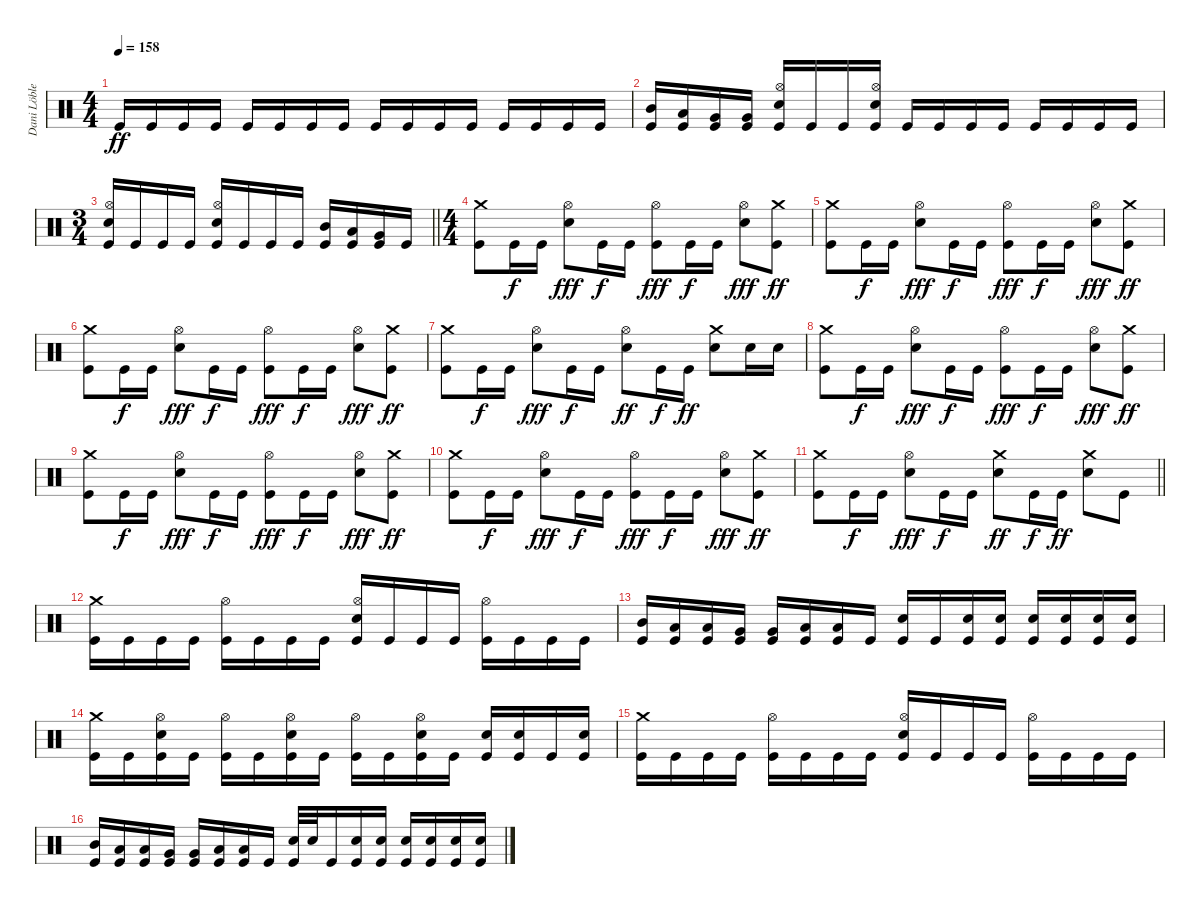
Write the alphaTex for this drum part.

\track ("Dani Löble" "Dani Löble") {instrument percussion}
\staff {score}
\articulation defaults
\ts (4 4)
\section ("" "")
\tempo 158
\clef neutral
\ks c "Kick (hit)".16{dy ff} "Kick (hit)".16 "Kick (hit)".16 "Kick (hit)".16 "Kick (hit)".16 "Kick (hit)".16 "Kick (hit)".16 "Kick (hit)".16 "Kick (hit)".16 "Kick (hit)".16 "Kick (hit)".16 "Kick (hit)".16 "Kick (hit)".16 "Kick (hit)".16 "Kick (hit)".16 "Kick (hit)".16
|
("Mid Tom (hit)" "Kick (hit)").16 ("Low Tom (hit)" "Kick (hit)").16 ("Very Low Tom (hit)" "Kick (hit)").16 ("Very Low Tom (hit)" "Kick (hit)").16 ("Hi-Hat (open)" "Electric Snare (hit)" "Kick (hit)").16 "Kick (hit)".16 "Kick (hit)".16 ("Hi-Hat (open)" "Electric Snare (hit)" "Kick (hit)").16 "Kick (hit)".16 "Kick (hit)".16 "Kick (hit)".16 "Kick (hit)".16 "Kick (hit)".16 "Kick (hit)".16 "Kick (hit)".16 "Kick (hit)".16 |
\ts (3 4)
\barLineRight lightlight
("Hi-Hat (open)" "Electric Snare (hit)" "Kick (hit)").16 "Kick (hit)".16 "Kick (hit)".16 "Kick (hit)".16 ("Hi-Hat (open)" "Electric Snare (hit)" "Kick (hit)").16 "Kick (hit)".16 "Kick (hit)".16 "Kick (hit)".16 ("Mid Tom (hit)" "Kick (hit)").16 ("Low Tom (hit)" "Kick (hit)").16 ("Very Low Tom (hit)" "Kick (hit)").16 "Kick (hit)".16 |
\ts (4 4)
\section ("" "")
("Crash medium (hit)" "Kick (hit)").8 "Kick (hit)".16{dy f} "Kick (hit)".16 ("Hi-Hat (open)" "Electric Snare (hit)").8{dy fff} "Kick (hit)".16{dy f} "Kick (hit)".16 ("Hi-Hat (open)" "Kick (hit)").8{dy fff} "Kick (hit)".16{dy f} "Kick (hit)".16 ("Hi-Hat (open)" "Electric Snare (hit)").8{dy fff} ("Crash medium (hit)" "Kick (hit)").8{dy ff} |
("Crash medium (hit)" "Kick (hit)").8 "Kick (hit)".16{dy f} "Kick (hit)".16 ("Hi-Hat (open)" "Electric Snare (hit)").8{dy fff} "Kick (hit)".16{dy f} "Kick (hit)".16 ("Hi-Hat (open)" "Kick (hit)").8{dy fff} "Kick (hit)".16{dy f} "Kick (hit)".16 ("Hi-Hat (open)" "Electric Snare (hit)").8{dy fff} ("Crash medium (hit)" "Kick (hit)").8{dy ff} |
("Crash medium (hit)" "Kick (hit)").8 "Kick (hit)".16{dy f} "Kick (hit)".16 ("Hi-Hat (open)" "Electric Snare (hit)").8{dy fff} "Kick (hit)".16{dy f} "Kick (hit)".16 ("Hi-Hat (open)" "Kick (hit)").8{dy fff} "Kick (hit)".16{dy f} "Kick (hit)".16 ("Hi-Hat (open)" "Electric Snare (hit)").8{dy fff} ("Crash medium (hit)" "Kick (hit)").8{dy ff} |
("Crash medium (hit)" "Kick (hit)").8 "Kick (hit)".16{dy f} "Kick (hit)".16 ("Hi-Hat (open)" "Electric Snare (hit)").8{dy fff} "Kick (hit)".16{dy f} "Kick (hit)".16 ("Hi-Hat (open)" "Electric Snare (hit)").8{dy ff} "Kick (hit)".16{dy f} "Kick (hit)".16{dy ff} ("Crash medium (hit)" "Electric Snare (hit)").8 "Electric Snare (hit)".16 "Electric Snare (hit)".16 |
("Crash medium (hit)" "Kick (hit)").8 "Kick (hit)".16{dy f} "Kick (hit)".16 ("Hi-Hat (open)" "Electric Snare (hit)").8{dy fff} "Kick (hit)".16{dy f} "Kick (hit)".16 ("Hi-Hat (open)" "Kick (hit)").8{dy fff} "Kick (hit)".16{dy f} "Kick (hit)".16 ("Hi-Hat (open)" "Electric Snare (hit)").8{dy fff} ("Crash medium (hit)" "Kick (hit)").8{dy ff} |
("Crash medium (hit)" "Kick (hit)").8 "Kick (hit)".16{dy f} "Kick (hit)".16 ("Hi-Hat (open)" "Electric Snare (hit)").8{dy fff} "Kick (hit)".16{dy f} "Kick (hit)".16 ("Hi-Hat (open)" "Kick (hit)").8{dy fff} "Kick (hit)".16{dy f} "Kick (hit)".16 ("Hi-Hat (open)" "Electric Snare (hit)").8{dy fff} ("Crash medium (hit)" "Kick (hit)").8{dy ff} |
("Crash medium (hit)" "Kick (hit)").8 "Kick (hit)".16{dy f} "Kick (hit)".16 ("Hi-Hat (open)" "Electric Snare (hit)").8{dy fff} "Kick (hit)".16{dy f} "Kick (hit)".16 ("Hi-Hat (open)" "Kick (hit)").8{dy fff} "Kick (hit)".16{dy f} "Kick (hit)".16 ("Hi-Hat (open)" "Electric Snare (hit)").8{dy fff} ("Crash medium (hit)" "Kick (hit)").8{dy ff} |
\barLineRight lightlight
("Crash medium (hit)" "Kick (hit)").8 "Kick (hit)".16{dy f} "Kick (hit)".16 ("Hi-Hat (open)" "Electric Snare (hit)").8{dy fff} "Kick (hit)".16{dy f} "Kick (hit)".16 ("Crash medium (hit)" "Electric Snare (hit)").8{dy ff} "Kick (hit)".16{dy f} "Kick (hit)".16{dy ff} ("Crash medium (hit)" "Electric Snare (hit)").8 "Kick (hit)".8 |
\section ("" "")
("Crash medium (hit)" "Kick (hit)").16 "Kick (hit)".16 "Kick (hit)".16 "Kick (hit)".16 ("Hi-Hat (open)" "Kick (hit)").16 "Kick (hit)".16 "Kick (hit)".16 "Kick (hit)".16 ("Hi-Hat (open)" "Electric Snare (hit)" "Kick (hit)").16 "Kick (hit)".16 "Kick (hit)".16 "Kick (hit)".16 ("Hi-Hat (open)" "Kick (hit)").16 "Kick (hit)".16 "Kick (hit)".16 "Kick (hit)".16 |
("Mid Tom (hit)" "Kick (hit)").16 ("Low Tom (hit)" "Kick (hit)").16 ("Low Tom (hit)" "Kick (hit)").16 ("Very Low Tom (hit)" "Kick (hit)").16 ("Very Low Tom (hit)" "Kick (hit)").16 ("Low Floor Tom (hit)" "Kick (hit)").16 ("Low Floor Tom (hit)" "Kick (hit)").16 "Kick (hit)".16 ("Electric Snare (hit)" "Kick (hit)").16 "Kick (hit)".16 ("Electric Snare (hit)" "Kick (hit)").16 ("Electric Snare (hit)" "Kick (hit)").16 ("Electric Snare (hit)" "Kick (hit)").16 ("Electric Snare (hit)" "Kick (hit)").16 ("Electric Snare (hit)" "Kick (hit)").16 ("Electric Snare (hit)" "Kick (hit)").16 |
("Crash medium (hit)" "Kick (hit)").16 "Kick (hit)".16 ("Hi-Hat (open)" "Electric Snare (hit)" "Kick (hit)").16 "Kick (hit)".16 ("Hi-Hat (open)" "Kick (hit)").16 "Kick (hit)".16 ("Hi-Hat (open)" "Electric Snare (hit)" "Kick (hit)").16 "Kick (hit)".16 ("Hi-Hat (open)" "Kick (hit)").16 "Kick (hit)".16 ("Hi-Hat (open)" "Electric Snare (hit)" "Kick (hit)").16 "Kick (hit)".16 ("Electric Snare (hit)" "Kick (hit)").16 ("Electric Snare (hit)" "Kick (hit)").16 "Kick (hit)".16 ("Electric Snare (hit)" "Kick (hit)").16 |
("Crash medium (hit)" "Kick (hit)").16 "Kick (hit)".16 "Kick (hit)".16 "Kick (hit)".16 ("Hi-Hat (open)" "Kick (hit)").16 "Kick (hit)".16 "Kick (hit)".16 "Kick (hit)".16 ("Hi-Hat (open)" "Electric Snare (hit)" "Kick (hit)").16 "Kick (hit)".16 "Kick (hit)".16 "Kick (hit)".16 ("Hi-Hat (open)" "Kick (hit)").16 "Kick (hit)".16 "Kick (hit)".16 "Kick (hit)".16 |
("Mid Tom (hit)" "Kick (hit)").16 ("Low Tom (hit)" "Kick (hit)").16 ("Low Tom (hit)" "Kick (hit)").16 ("Very Low Tom (hit)" "Kick (hit)").16 ("Very Low Tom (hit)" "Kick (hit)").16 ("Low Floor Tom (hit)" "Kick (hit)").16 ("Low Floor Tom (hit)" "Kick (hit)").16 "Kick (hit)".16 ("Electric Snare (hit)" "Kick (hit)").32 "Electric Snare (hit)".32 "Kick (hit)".16 ("Electric Snare (hit)" "Kick (hit)").16 ("Electric Snare (hit)" "Kick (hit)").16 ("Electric Snare (hit)" "Kick (hit)").16 ("Electric Snare (hit)" "Kick (hit)").16 ("Electric Snare (hit)" "Kick (hit)").16 ("Electric Snare (hit)" "Kick (hit)").16
